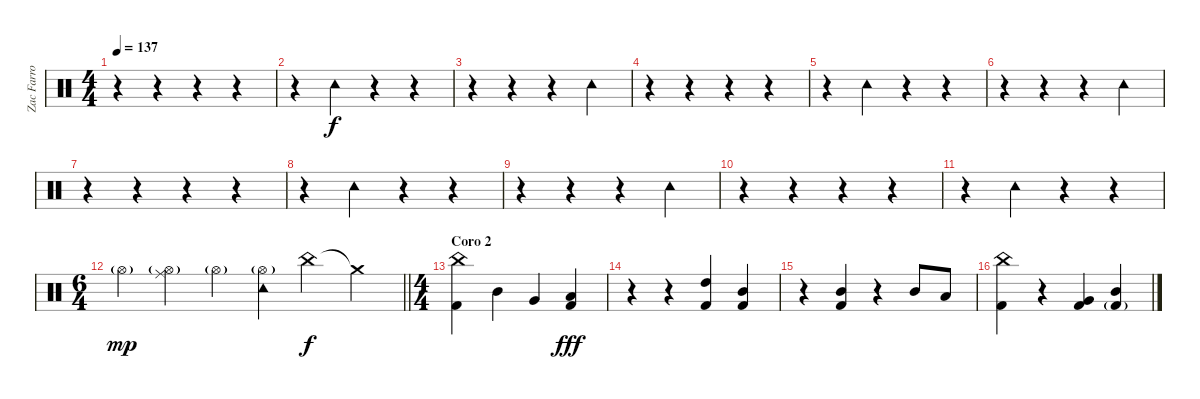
\track ("Zac Farro" "Zac Farro") {instrument percussion}
\staff
\articulation defaults
\ts (4 4)
\tempo 137
\clef neutral
\ks c
r.4{dy f} r.4 r.4 r.4 |
r.4 "Tambourine (hit)".4 r.4 r.4 |
r.4 r.4 r.4 "Tambourine (hit)".4 |
r.4 r.4 r.4 r.4 |
r.4 "Tambourine (hit)".4 r.4 r.4 |
r.4 r.4 r.4 "Tambourine (hit)".4 |
r.4 r.4 r.4 r.4 |
r.4 "Tambourine (hit)".4 r.4 r.4 |
r.4 r.4 r.4 "Tambourine (hit)".4 |
r.4 r.4 r.4 r.4 |
r.4 "Tambourine (hit)".4 r.4 r.4 |
\ts (6 4)
\barLineRight lightlight "Hi-Hat (open)"{g}.4{dy mp volume 0}
("Ride (middle)" "Hi-Hat (open)"{g}).4 "Hi-Hat (open)"{g}.4 ("Tambourine (hit)" "Hi-Hat (open)"{g}).4 "China (hit)".4{dy f volume 13} "Crash medium (hit)"{t}.4 |
\ts (4 4)
\section ("" "Coro 2")
("China (hit)" "Kick (hit) 2").4 "Mid Tom (hit)".4 "Very Low Tom (hit)".4 ("Low Floor Tom (hit)" "Kick (hit) 2").4{dy fff} |
r.4 r.4 ("High Tom (hit)" "Kick (hit) 2").4 ("Mid Tom (hit)" "Kick (hit) 2").4 |
r.4 ("Mid Tom (hit)" "Kick (hit) 2").4 r.4 "Mid Tom (hit)".8 "Low Tom (hit)".8 |
("China (hit)" "Kick (hit) 2").4 r.4 ("Very Low Tom (hit)" "Kick (hit) 2").4 ("Mid Tom (hit)" "Kick (hit) 2"{g}).4
